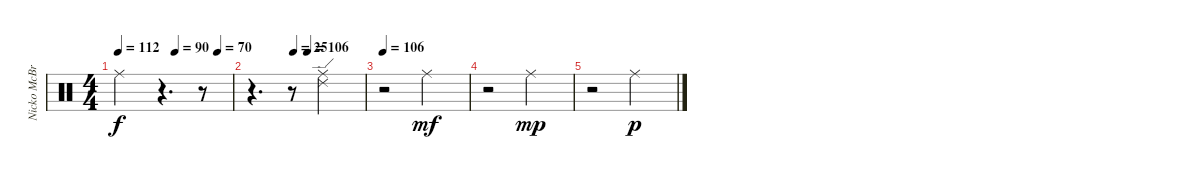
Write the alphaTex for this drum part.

\track ("Nicko McBrain" "Nicko McBr") {instrument percussion}
\staff {score}
\articulation defaults
\ts (4 4)
\tempo 112
\tempo (90 0.5)
\tempo (70 0.875)
\clef neutral
\ks c "Ride (middle)".2{dy f}
r.4{d} r.8 |
\tempo (25 0.375)
\tempo (106 0.5)
r.4{d} r.8 ("Ride (middle)" "Ride (edge) 2").2 |
\tempo 106
r.2 "Ride (middle)".2{dy mf} |
r.2 "Ride (middle)".2{dy mp} |
r.2 "Ride (middle)".2{dy p}
